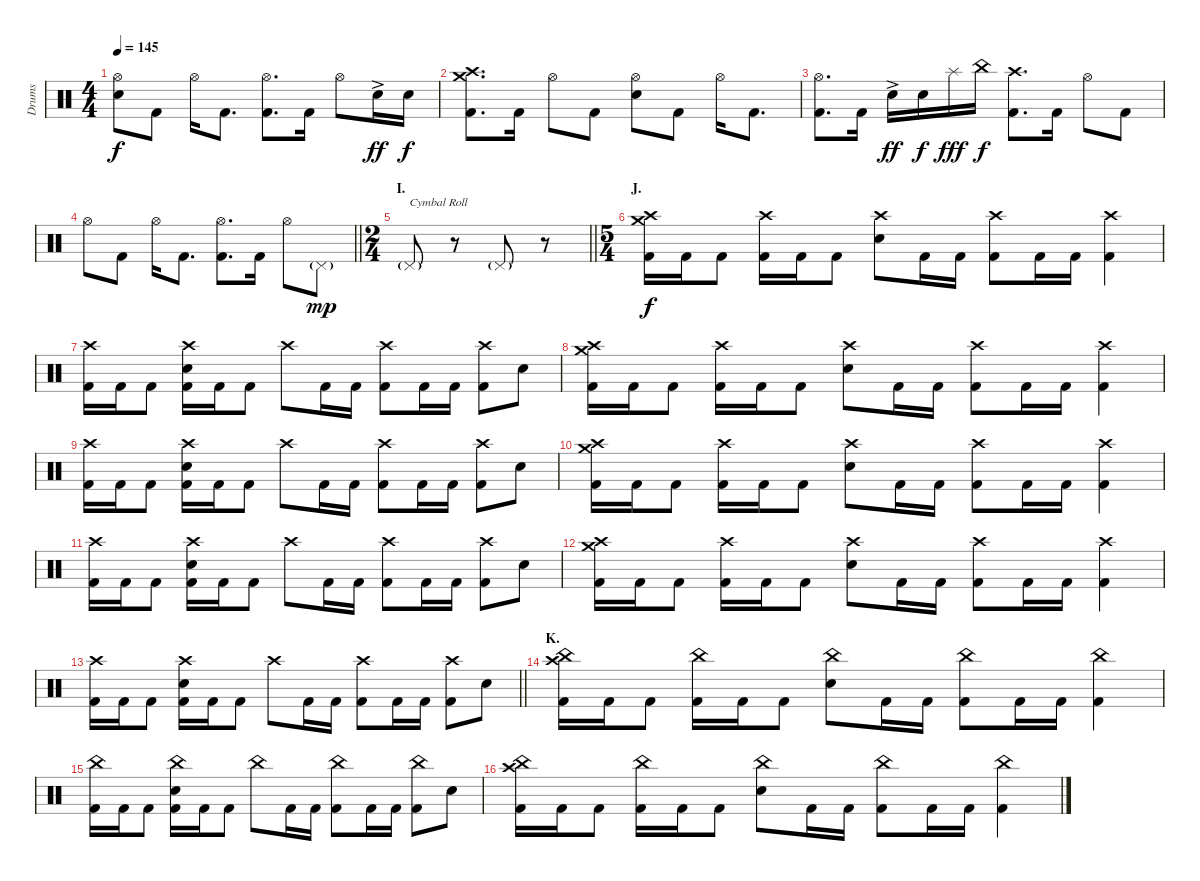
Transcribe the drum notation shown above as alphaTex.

\track ("Drums" "Drums") {instrument percussion}
\staff {score}
\articulation defaults
\ts (4 4)
\tempo 145
\clef neutral
\ks c
("Hi-Hat (open)" "Electric Snare (hit)").8{dy f} "Kick (hit) 2".8 "Hi-Hat (open)".16 "Kick (hit) 2".8{d} ("Hi-Hat (open)" "Kick (hit) 2").8{d} "Kick (hit) 2".16 "Hi-Hat (open)".8 "Electric Snare (hit)"{ac}.16{dy ff} "Electric Snare (hit)".16{dy f} |
("Crash medium (hit)" "Crash high (hit)" "Kick (hit) 2").8{d} "Kick (hit) 2".16 "Hi-Hat (open)".8 "Kick (hit) 2".8 ("Hi-Hat (open)" "Electric Snare (hit)").8 "Kick (hit) 2".8 "Hi-Hat (open)".16 "Kick (hit) 2".8{d} |
("Hi-Hat (open)" "Kick (hit) 2").8{d} "Kick (hit) 2".16 "Electric Snare (hit)"{ac}.16{dy ff} "Electric Snare (hit)".16{dy f} "Splash (hit)".16{dy fff} "China (hit)".16{dy f} ("Crash high (hit)" "Kick (hit) 2").8{d} "Kick (hit) 2".16 "Hi-Hat (open)".8 "Kick (hit) 2".8 |
\barLineRight lightlight "Hi-Hat (open)".8 "Kick (hit) 2".8 "Hi-Hat (open)".16 "Kick (hit) 2".8{d}
("Hi-Hat (open)" "Kick (hit) 2").8{d} "Kick (hit) 2".16 "Hi-Hat (open)".8 "Pedal Hi-Hat (hit)"{g}.8{dy mp} |
\ts (2 4)
\section ("" "I.")
\barLineRight lightlight "Pedal Hi-Hat (hit)"{g}.8{txt "Cymbal Roll"}
r.8 "Pedal Hi-Hat (hit)"{g}.8 r.8 |
\ts (5 4)
\section ("" "J.")
("Crash medium (hit)" "Crash high (hit)" "Kick (hit) 2").16{dy f} "Kick (hit) 2".16 "Kick (hit) 2".8 ("Crash high (hit)" "Kick (hit) 2").16 "Kick (hit) 2".16 "Kick (hit) 2".8 ("Crash high (hit)" "Electric Snare (hit)").8 "Kick (hit) 2".16 "Kick (hit) 2".16 ("Crash high (hit)" "Kick (hit) 2").8 "Kick (hit) 2".16 "Kick (hit) 2".16 ("Crash high (hit)" "Kick (hit) 2").4 |
("Crash high (hit)" "Kick (hit) 2").16 "Kick (hit) 2".16 "Kick (hit) 2".8 ("Crash high (hit)" "Electric Snare (hit)" "Kick (hit) 2").16 "Kick (hit) 2".16 "Kick (hit) 2".8 "Crash high (hit)".8 "Kick (hit) 2".16 "Kick (hit) 2".16 ("Crash high (hit)" "Kick (hit) 2").8 "Kick (hit) 2".16 "Kick (hit) 2".16 ("Crash high (hit)" "Kick (hit) 2").8 "Electric Snare (hit)".8 |
("Crash medium (hit)" "Crash high (hit)" "Kick (hit) 2").16 "Kick (hit) 2".16 "Kick (hit) 2".8 ("Crash high (hit)" "Kick (hit) 2").16 "Kick (hit) 2".16 "Kick (hit) 2".8 ("Crash high (hit)" "Electric Snare (hit)").8 "Kick (hit) 2".16 "Kick (hit) 2".16 ("Crash high (hit)" "Kick (hit) 2").8 "Kick (hit) 2".16 "Kick (hit) 2".16 ("Crash high (hit)" "Kick (hit) 2").4 |
("Crash high (hit)" "Kick (hit) 2").16 "Kick (hit) 2".16 "Kick (hit) 2".8 ("Crash high (hit)" "Electric Snare (hit)" "Kick (hit) 2").16 "Kick (hit) 2".16 "Kick (hit) 2".8 "Crash high (hit)".8 "Kick (hit) 2".16 "Kick (hit) 2".16 ("Crash high (hit)" "Kick (hit) 2").8 "Kick (hit) 2".16 "Kick (hit) 2".16 ("Crash high (hit)" "Kick (hit) 2").8 "Electric Snare (hit)".8 |
("Crash medium (hit)" "Crash high (hit)" "Kick (hit) 2").16 "Kick (hit) 2".16 "Kick (hit) 2".8 ("Crash high (hit)" "Kick (hit) 2").16 "Kick (hit) 2".16 "Kick (hit) 2".8 ("Crash high (hit)" "Electric Snare (hit)").8 "Kick (hit) 2".16 "Kick (hit) 2".16 ("Crash high (hit)" "Kick (hit) 2").8 "Kick (hit) 2".16 "Kick (hit) 2".16 ("Crash high (hit)" "Kick (hit) 2").4 |
("Crash high (hit)" "Kick (hit) 2").16 "Kick (hit) 2".16 "Kick (hit) 2".8 ("Crash high (hit)" "Electric Snare (hit)" "Kick (hit) 2").16 "Kick (hit) 2".16 "Kick (hit) 2".8 "Crash high (hit)".8 "Kick (hit) 2".16 "Kick (hit) 2".16 ("Crash high (hit)" "Kick (hit) 2").8 "Kick (hit) 2".16 "Kick (hit) 2".16 ("Crash high (hit)" "Kick (hit) 2").8 "Electric Snare (hit)".8 |
("Crash medium (hit)" "Crash high (hit)" "Kick (hit) 2").16 "Kick (hit) 2".16 "Kick (hit) 2".8 ("Crash high (hit)" "Kick (hit) 2").16 "Kick (hit) 2".16 "Kick (hit) 2".8 ("Crash high (hit)" "Electric Snare (hit)").8 "Kick (hit) 2".16 "Kick (hit) 2".16 ("Crash high (hit)" "Kick (hit) 2").8 "Kick (hit) 2".16 "Kick (hit) 2".16 ("Crash high (hit)" "Kick (hit) 2").4 |
\barLineRight lightlight
("Crash high (hit)" "Kick (hit) 2").16 "Kick (hit) 2".16 "Kick (hit) 2".8 ("Crash high (hit)" "Electric Snare (hit)" "Kick (hit) 2").16 "Kick (hit) 2".16 "Kick (hit) 2".8 "Crash high (hit)".8 "Kick (hit) 2".16 "Kick (hit) 2".16 ("Crash high (hit)" "Kick (hit) 2").8 "Kick (hit) 2".16 "Kick (hit) 2".16 ("Crash high (hit)" "Kick (hit) 2").8 "Electric Snare (hit)".8 |
\section ("" "K.")
("China (hit)" "Crash high (hit)" "Kick (hit) 2").16 "Kick (hit) 2".16 "Kick (hit) 2".8 ("China (hit)" "Kick (hit) 2").16 "Kick (hit) 2".16 "Kick (hit) 2".8 ("China (hit)" "Electric Snare (hit)").8 "Kick (hit) 2".16 "Kick (hit) 2".16 ("China (hit)" "Kick (hit) 2").8 "Kick (hit) 2".16 "Kick (hit) 2".16 ("China (hit)" "Kick (hit) 2").4 |
("China (hit)" "Kick (hit) 2").16 "Kick (hit) 2".16 "Kick (hit) 2".8 ("China (hit)" "Electric Snare (hit)" "Kick (hit) 2").16 "Kick (hit) 2".16 "Kick (hit) 2".8 "China (hit)".8 "Kick (hit) 2".16 "Kick (hit) 2".16 ("China (hit)" "Kick (hit) 2").8 "Kick (hit) 2".16 "Kick (hit) 2".16 ("China (hit)" "Kick (hit) 2").8 "Electric Snare (hit)".8 |
("China (hit)" "Crash high (hit)" "Kick (hit) 2").16 "Kick (hit) 2".16 "Kick (hit) 2".8 ("China (hit)" "Kick (hit) 2").16 "Kick (hit) 2".16 "Kick (hit) 2".8 ("China (hit)" "Electric Snare (hit)").8 "Kick (hit) 2".16 "Kick (hit) 2".16 ("China (hit)" "Kick (hit) 2").8 "Kick (hit) 2".16 "Kick (hit) 2".16 ("China (hit)" "Kick (hit) 2").4
